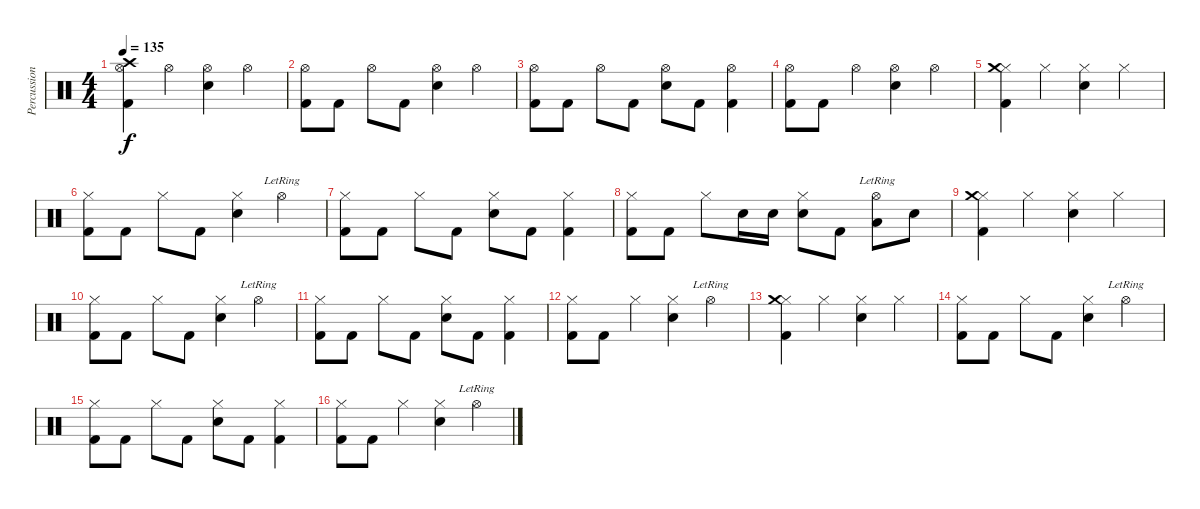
\track ("Percussion" "Percussion") {instrument percussion}
\staff {score}
\articulation defaults
\ts (4 4)
\tempo 135
\clef neutral
\ks c
("Kick (hit) 2" "Hi-Hat (open)" "Crash high (hit)").4{dy f} "Hi-Hat (open)".4 ("Electric Snare (hit)" "Hi-Hat (open)").4 "Hi-Hat (open)".4 |
("Kick (hit) 2" "Hi-Hat (open)").8 "Kick (hit) 2".8 "Hi-Hat (open)".8 "Kick (hit) 2".8 ("Electric Snare (hit)" "Hi-Hat (open)").4 "Hi-Hat (open)".4 |
("Kick (hit) 2" "Hi-Hat (open)").8 "Kick (hit) 2".8 "Hi-Hat (open)".8 "Kick (hit) 2".8 ("Electric Snare (hit)" "Hi-Hat (open)").8 "Kick (hit) 2".8 ("Kick (hit) 2" "Hi-Hat (open)").4 |
("Kick (hit) 2" "Hi-Hat (open)").8 "Kick (hit) 2".8 "Hi-Hat (open)".4 ("Electric Snare (hit)" "Hi-Hat (open)").4 "Hi-Hat (open)".4 |
("Kick (hit) 2" "Hi-Hat (closed)" "Crash medium (hit)").4 "Hi-Hat (closed)".4 ("Electric Snare (hit)" "Hi-Hat (closed)").4 "Hi-Hat (closed)".4 |
("Kick (hit) 2" "Hi-Hat (closed)").8 "Kick (hit) 2".8 "Hi-Hat (closed)".8 "Kick (hit) 2".8 ("Electric Snare (hit)" "Hi-Hat (closed)").4 "Hi-Hat (open)"{lr}.4 |
("Kick (hit) 2" "Hi-Hat (closed)").8 "Kick (hit) 2".8 "Hi-Hat (closed)".8 "Kick (hit) 2".8 ("Electric Snare (hit)" "Hi-Hat (closed)").8 "Kick (hit) 2".8 ("Kick (hit) 2" "Hi-Hat (closed)").4 |
("Kick (hit) 2" "Hi-Hat (closed)").8 "Kick (hit) 2".8 "Hi-Hat (closed)".8 "Electric Snare (hit)".16 "Electric Snare (hit)".16 ("Electric Snare (hit)" "Hi-Hat (closed)").8 "Kick (hit) 2".8 ("Low Floor Tom (hit)" "Hi-Hat (open)"{lr}).8 "Electric Snare (hit)".8 |
("Kick (hit) 2" "Hi-Hat (closed)" "Crash medium (hit)").4 "Hi-Hat (closed)".4 ("Electric Snare (hit)" "Hi-Hat (closed)").4 "Hi-Hat (closed)".4 |
("Kick (hit) 2" "Hi-Hat (closed)").8 "Kick (hit) 2".8 "Hi-Hat (closed)".8 "Kick (hit) 2".8 ("Electric Snare (hit)" "Hi-Hat (closed)").4 "Hi-Hat (open)"{lr}.4 |
("Kick (hit) 2" "Hi-Hat (closed)").8 "Kick (hit) 2".8 "Hi-Hat (closed)".8 "Kick (hit) 2".8 ("Electric Snare (hit)" "Hi-Hat (closed)").8 "Kick (hit) 2".8 ("Kick (hit) 2" "Hi-Hat (closed)").4 |
("Kick (hit) 2" "Hi-Hat (closed)").8 "Kick (hit) 2".8 "Hi-Hat (closed)".4 ("Electric Snare (hit)" "Hi-Hat (closed)").4 "Hi-Hat (open)"{lr}.4 |
("Kick (hit) 2" "Hi-Hat (closed)" "Crash medium (hit)").4 "Hi-Hat (closed)".4 ("Electric Snare (hit)" "Hi-Hat (closed)").4 "Hi-Hat (closed)".4 |
("Kick (hit) 2" "Hi-Hat (closed)").8 "Kick (hit) 2".8 "Hi-Hat (closed)".8 "Kick (hit) 2".8 ("Electric Snare (hit)" "Hi-Hat (closed)").4 "Hi-Hat (open)"{lr}.4 |
("Kick (hit) 2" "Hi-Hat (closed)").8 "Kick (hit) 2".8 "Hi-Hat (closed)".8 "Kick (hit) 2".8 ("Electric Snare (hit)" "Hi-Hat (closed)").8 "Kick (hit) 2".8 ("Kick (hit) 2" "Hi-Hat (closed)").4 |
("Kick (hit) 2" "Hi-Hat (closed)").8 "Kick (hit) 2".8 "Hi-Hat (closed)".4 ("Electric Snare (hit)" "Hi-Hat (closed)").4 "Hi-Hat (open)"{lr}.4
